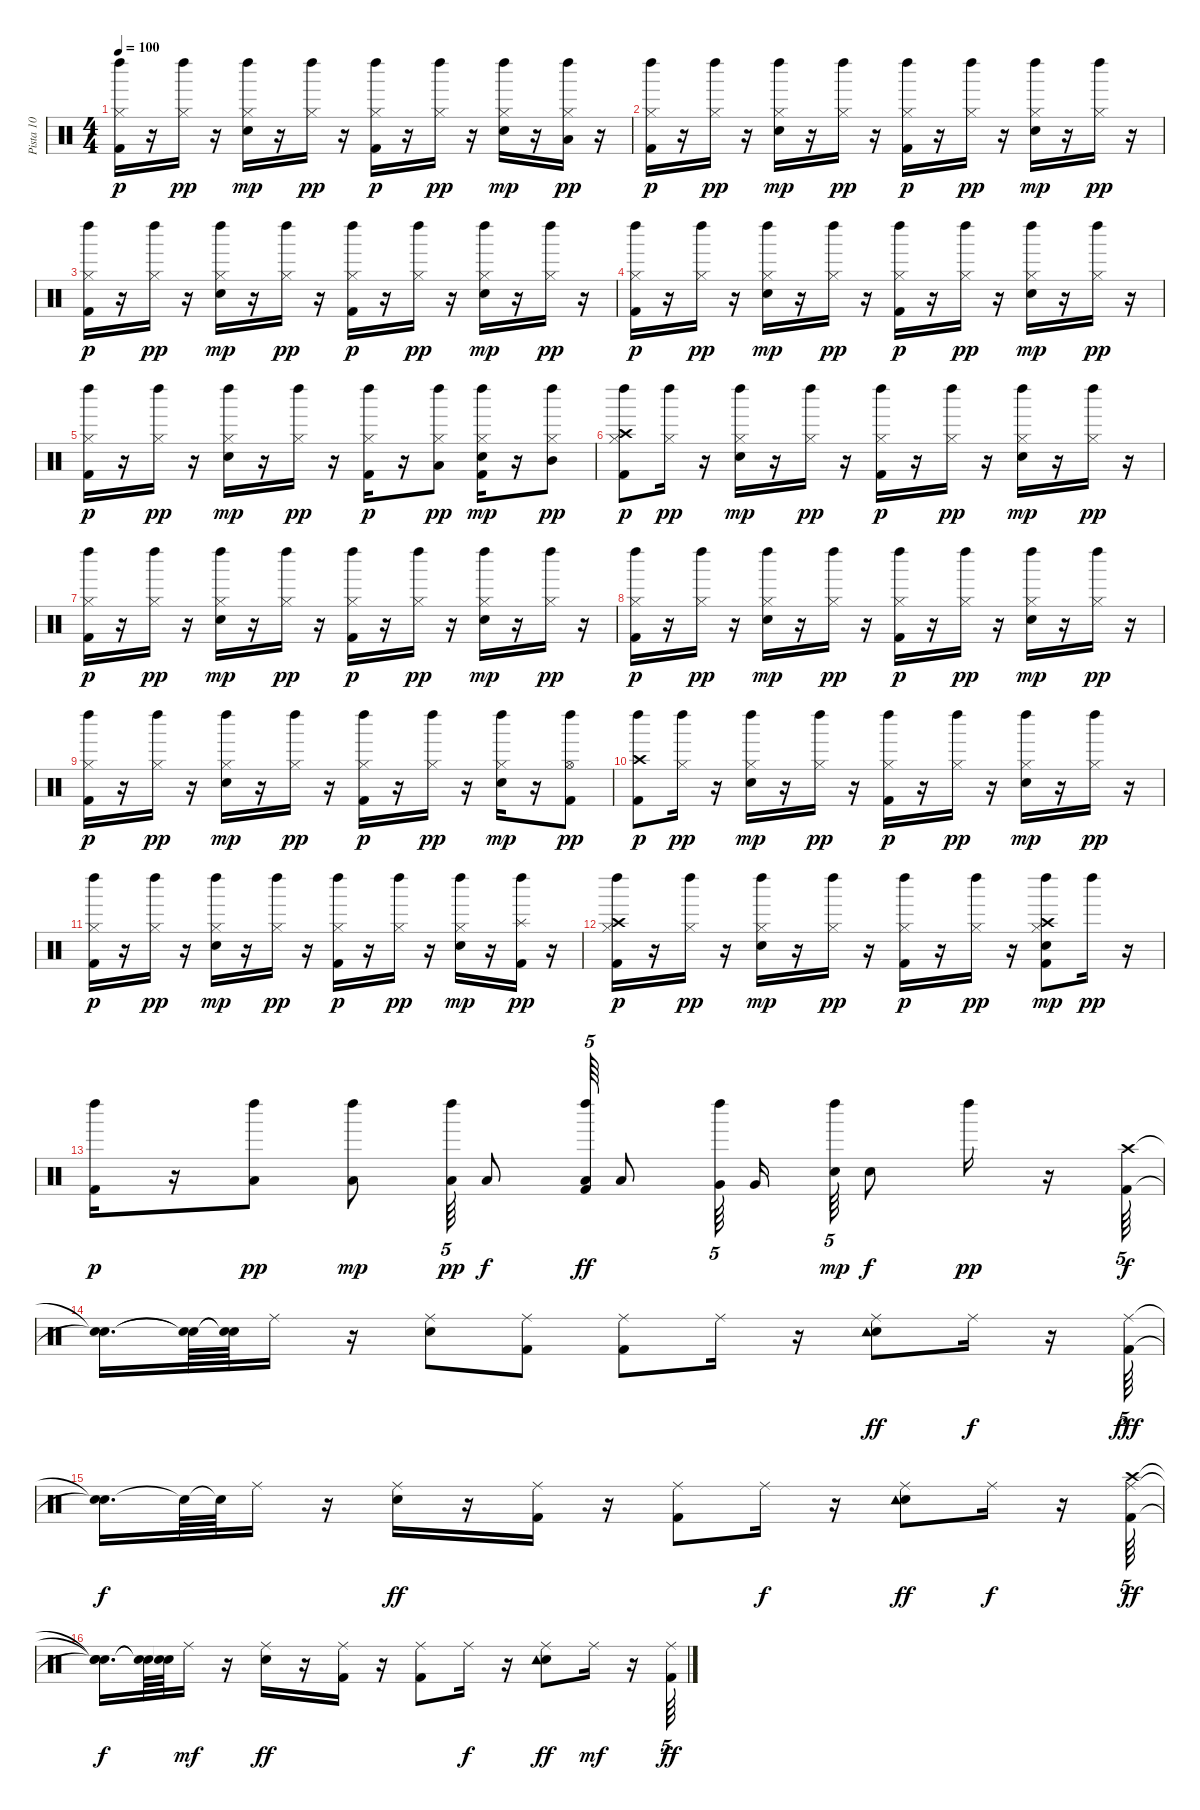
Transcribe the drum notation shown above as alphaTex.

\track ("Pista 10" "Pista 10") {instrument percussion}
\staff {score}
\articulation defaults
\ts (4 4)
\tempo 100
\clef neutral
\ks c
("Kick (hit) 2" "Hi-Hat (closed)" "Left Maraca (hit)").16{dy p} r.16 ("Hi-Hat (closed)" "Left Maraca (hit)").16{dy pp} r.16 ("Snare (hit) 2" "Hi-Hat (closed)" "Left Maraca (hit)").16{dy mp} r.16 ("Hi-Hat (closed)" "Left Maraca (hit)").16{dy pp} r.16 ("Kick (hit) 2" "Hi-Hat (closed)" "Left Maraca (hit)").16{dy p} r.16 ("Hi-Hat (closed)" "Left Maraca (hit)").16{dy pp} r.16 ("Snare (hit) 2" "Hi-Hat (closed)" "Left Maraca (hit)").16{dy mp} r.16 ("Low Tom (hit)" "Hi-Hat (closed)" "Left Maraca (hit)").16{dy pp} r.16 |
("Kick (hit) 2" "Hi-Hat (closed)" "Left Maraca (hit)").16{dy p} r.16 ("Hi-Hat (closed)" "Left Maraca (hit)").16{dy pp} r.16 ("Snare (hit) 2" "Hi-Hat (closed)" "Left Maraca (hit)").16{dy mp} r.16 ("Hi-Hat (closed)" "Left Maraca (hit)").16{dy pp} r.16 ("Kick (hit) 2" "Hi-Hat (closed)" "Left Maraca (hit)").16{dy p} r.16 ("Hi-Hat (closed)" "Left Maraca (hit)").16{dy pp} r.16 ("Snare (hit) 2" "Hi-Hat (closed)" "Left Maraca (hit)").16{dy mp} r.16 ("Hi-Hat (closed)" "Left Maraca (hit)").16{dy pp} r.16 |
("Kick (hit) 2" "Hi-Hat (closed)" "Left Maraca (hit)").16{dy p} r.16 ("Hi-Hat (closed)" "Left Maraca (hit)").16{dy pp} r.16 ("Snare (hit) 2" "Hi-Hat (closed)" "Left Maraca (hit)").16{dy mp} r.16 ("Hi-Hat (closed)" "Left Maraca (hit)").16{dy pp} r.16 ("Kick (hit) 2" "Hi-Hat (closed)" "Left Maraca (hit)").16{dy p} r.16 ("Hi-Hat (closed)" "Left Maraca (hit)").16{dy pp} r.16 ("Snare (hit) 2" "Hi-Hat (closed)" "Left Maraca (hit)").16{dy mp} r.16 ("Hi-Hat (closed)" "Left Maraca (hit)").16{dy pp} r.16 |
("Kick (hit) 2" "Hi-Hat (closed)" "Left Maraca (hit)").16{dy p} r.16 ("Hi-Hat (closed)" "Left Maraca (hit)").16{dy pp} r.16 ("Snare (hit) 2" "Hi-Hat (closed)" "Left Maraca (hit)").16{dy mp} r.16 ("Hi-Hat (closed)" "Left Maraca (hit)").16{dy pp} r.16 ("Kick (hit) 2" "Hi-Hat (closed)" "Left Maraca (hit)").16{dy p} r.16 ("Hi-Hat (closed)" "Left Maraca (hit)").16{dy pp} r.16 ("Snare (hit) 2" "Hi-Hat (closed)" "Left Maraca (hit)").16{dy mp} r.16 ("Hi-Hat (closed)" "Left Maraca (hit)").16{dy pp} r.16 |
("Kick (hit) 2" "Hi-Hat (closed)" "Left Maraca (hit)").16{dy p} r.16 ("Hi-Hat (closed)" "Left Maraca (hit)").16{dy pp} r.16 ("Snare (hit) 2" "Hi-Hat (closed)" "Left Maraca (hit)").16{dy mp} r.16 ("Hi-Hat (closed)" "Left Maraca (hit)").16{dy pp} r.16 ("Kick (hit) 2" "Hi-Hat (closed)" "Left Maraca (hit)").16{dy p} r.16 ("Low Tom (hit)" "Hi-Hat (closed)" "Left Maraca (hit)").8{dy pp} ("Kick (hit) 2" "Snare (hit) 2" "Hi-Hat (closed)" "Left Maraca (hit)").16{dy mp} r.16 ("Mid Tom (hit)" "Hi-Hat (closed)" "Left Maraca (hit)").8{dy pp} |
("Crash high (hit)" "Kick (hit) 2" "Hi-Hat (closed)" "Left Maraca (hit)").8{dy p} ("Hi-Hat (closed)" "Left Maraca (hit)").16{dy pp} r.16 ("Snare (hit) 2" "Hi-Hat (closed)" "Left Maraca (hit)").16{dy mp} r.16 ("Hi-Hat (closed)" "Left Maraca (hit)").16{dy pp} r.16 ("Kick (hit) 2" "Hi-Hat (closed)" "Left Maraca (hit)").16{dy p} r.16 ("Hi-Hat (closed)" "Left Maraca (hit)").16{dy pp} r.16 ("Snare (hit) 2" "Hi-Hat (closed)" "Left Maraca (hit)").16{dy mp} r.16 ("Hi-Hat (closed)" "Left Maraca (hit)").16{dy pp} r.16 |
("Kick (hit) 2" "Hi-Hat (closed)" "Left Maraca (hit)").16{dy p} r.16 ("Hi-Hat (closed)" "Left Maraca (hit)").16{dy pp} r.16 ("Snare (hit) 2" "Hi-Hat (closed)" "Left Maraca (hit)").16{dy mp} r.16 ("Hi-Hat (closed)" "Left Maraca (hit)").16{dy pp} r.16 ("Kick (hit) 2" "Hi-Hat (closed)" "Left Maraca (hit)").16{dy p} r.16 ("Hi-Hat (closed)" "Left Maraca (hit)").16{dy pp} r.16 ("Snare (hit) 2" "Hi-Hat (closed)" "Left Maraca (hit)").16{dy mp} r.16 ("Hi-Hat (closed)" "Left Maraca (hit)").16{dy pp} r.16 |
("Kick (hit) 2" "Hi-Hat (closed)" "Left Maraca (hit)").16{dy p} r.16 ("Hi-Hat (closed)" "Left Maraca (hit)").16{dy pp} r.16 ("Snare (hit) 2" "Hi-Hat (closed)" "Left Maraca (hit)").16{dy mp} r.16 ("Hi-Hat (closed)" "Left Maraca (hit)").16{dy pp} r.16 ("Kick (hit) 2" "Hi-Hat (closed)" "Left Maraca (hit)").16{dy p} r.16 ("Hi-Hat (closed)" "Left Maraca (hit)").16{dy pp} r.16 ("Snare (hit) 2" "Hi-Hat (closed)" "Left Maraca (hit)").16{dy mp} r.16 ("Hi-Hat (closed)" "Left Maraca (hit)").16{dy pp} r.16 |
("Kick (hit) 2" "Hi-Hat (closed)" "Left Maraca (hit)").16{dy p} r.16 ("Hi-Hat (closed)" "Left Maraca (hit)").16{dy pp} r.16 ("Snare (hit) 2" "Hi-Hat (closed)" "Left Maraca (hit)").16{dy mp} r.16 ("Hi-Hat (closed)" "Left Maraca (hit)").16{dy pp} r.16 ("Kick (hit) 2" "Hi-Hat (closed)" "Left Maraca (hit)").16{dy p} r.16 ("Hi-Hat (closed)" "Left Maraca (hit)").16{dy pp} r.16 ("Snare (hit) 2" "Hi-Hat (closed)" "Left Maraca (hit)").16{dy mp} r.16 ("Kick (hit) 2" "Hi-Hat (open)" "Left Maraca (hit)").8{dy pp} |
("Crash high (hit)" "Kick (hit) 2" "Left Maraca (hit)").8{dy p} ("Hi-Hat (closed)" "Left Maraca (hit)").16{dy pp} r.16 ("Snare (hit) 2" "Hi-Hat (closed)" "Left Maraca (hit)").16{dy mp} r.16 ("Hi-Hat (closed)" "Left Maraca (hit)").16{dy pp} r.16 ("Kick (hit) 2" "Hi-Hat (closed)" "Left Maraca (hit)").16{dy p} r.16 ("Hi-Hat (closed)" "Left Maraca (hit)").16{dy pp} r.16 ("Snare (hit) 2" "Hi-Hat (closed)" "Left Maraca (hit)").16{dy mp} r.16 ("Hi-Hat (closed)" "Left Maraca (hit)").16{dy pp} r.16 |
("Kick (hit) 2" "Hi-Hat (closed)" "Left Maraca (hit)").16{dy p} r.16 ("Hi-Hat (closed)" "Left Maraca (hit)").16{dy pp} r.16 ("Snare (hit) 2" "Hi-Hat (closed)" "Left Maraca (hit)").16{dy mp} r.16 ("Hi-Hat (closed)" "Left Maraca (hit)").16{dy pp} r.16 ("Kick (hit) 2" "Hi-Hat (closed)" "Left Maraca (hit)").16{dy p} r.16 ("Hi-Hat (closed)" "Left Maraca (hit)").16{dy pp} r.16 ("Snare (hit) 2" "Hi-Hat (closed)" "Left Maraca (hit)").16{dy mp} r.16 ("Kick (hit) 2" "Splash (hit)" "Left Maraca (hit)").16{dy pp} r.16 |
("Crash high (hit)" "Kick (hit) 2" "Hi-Hat (closed)" "Left Maraca (hit)").16{dy p} r.16 ("Hi-Hat (closed)" "Left Maraca (hit)").16{dy pp} r.16 ("Snare (hit) 2" "Hi-Hat (closed)" "Left Maraca (hit)").16{dy mp} r.16 ("Hi-Hat (closed)" "Left Maraca (hit)").16{dy pp} r.16 ("Kick (hit) 2" "Hi-Hat (closed)" "Left Maraca (hit)").16{dy p} r.16 ("Hi-Hat (closed)" "Left Maraca (hit)").16{dy pp} r.16 ("Kick (hit) 2" "Crash high (hit)" "Snare (hit) 2" "Hi-Hat (closed)" "Left Maraca (hit)").8{dy mp} "Left Maraca (hit)".16{dy pp} r.16 |
("Kick (hit) 2" "Left Maraca (hit)").16{dy p} r.16 ("Low Tom (hit)" "Left Maraca (hit)").8{dy pp} ("Low Tom (hit)" "Left Maraca (hit)").8{dy mp} ("Left Maraca (hit)" "Low Tom (hit)").64{tu (5 4) dy pp} "Low Tom (hit)".8{dy f} ("Kick (hit) 2" "Left Maraca (hit)" "Low Tom (hit)").64{tu (5 4) dy ff} "Low Tom (hit)".8 ("Left Maraca (hit)" "Very Low Tom (hit)").64{tu (5 4) beam splitsecondary} "Very Low Tom (hit)".16{beam splitsecondary} ("Left Maraca (hit)" "Snare (hit) 2").64{tu (5 4) dy mp} "Snare (hit) 2".8{dy f} "Left Maraca (hit)".16{dy pp} r.16 ("Crash high (hit)" "Kick (hit) 2").64{tu (5 4) dy f} |
("Snare (hit)"{t} "Snare (hit)"{t}).16{d} ("Snare (hit)"{t} "Snare (hit)"{t}).64 ("Snare (hit)"{t} "Snare (hit)"{t}).64 "Ride (middle)".16 r.16 ("Snare (hit) 2" "Ride (middle)").8 ("Kick (hit) 2" "Ride (middle)").8 ("Kick (hit) 2" "Ride (middle)").8 "Ride (middle)".16 r.16 ("Ride (middle)" "Snare (hit) 2" "Tambourine (hit)").8{dy ff} "Ride (middle)".16{dy f} r.16 ("Ride (middle)" "Kick (hit) 2").64{tu (5 4) dy fff} |
("Snare (hit)"{t} "Snare (hit)"{t}).16{d dy f} "Snare (hit)"{t}.64 "Snare (hit)"{t}.64 "Ride (middle)".16 r.16 ("Ride (middle)" "Snare (hit) 2").16{dy ff} r.16 ("Ride (middle)" "Kick (hit) 2").16 r.16 ("Ride (middle)" "Kick (hit) 2").8 "Ride (middle)".16{dy f} r.16 ("Ride (middle)" "Snare (hit) 2" "Tambourine (hit)").8{dy ff} "Ride (middle)".16{dy f} r.16 ("Crash high (hit)" "Ride (middle)" "Kick (hit) 2").64{tu (5 4) dy ff} |
("Snare (hit)"{t} "Snare (hit)"{t} "Snare (hit)"{t}).16{d dy f} ("Snare (hit)"{t} "Snare (hit)"{t}).64 ("Snare (hit)"{t} "Snare (hit)"{t}).64 "Ride (middle)".16{dy mf} r.16 ("Ride (middle)" "Snare (hit) 2").16{dy ff} r.16 ("Ride (middle)" "Kick (hit) 2").16 r.16 ("Ride (middle)" "Kick (hit) 2").8 "Ride (middle)".16{dy f} r.16 ("Ride (middle)" "Snare (hit) 2" "Tambourine (hit)").8{dy ff} "Ride (middle)".16{dy mf} r.16 ("Ride (middle)" "Kick (hit) 2").64{tu (5 4) dy ff}
